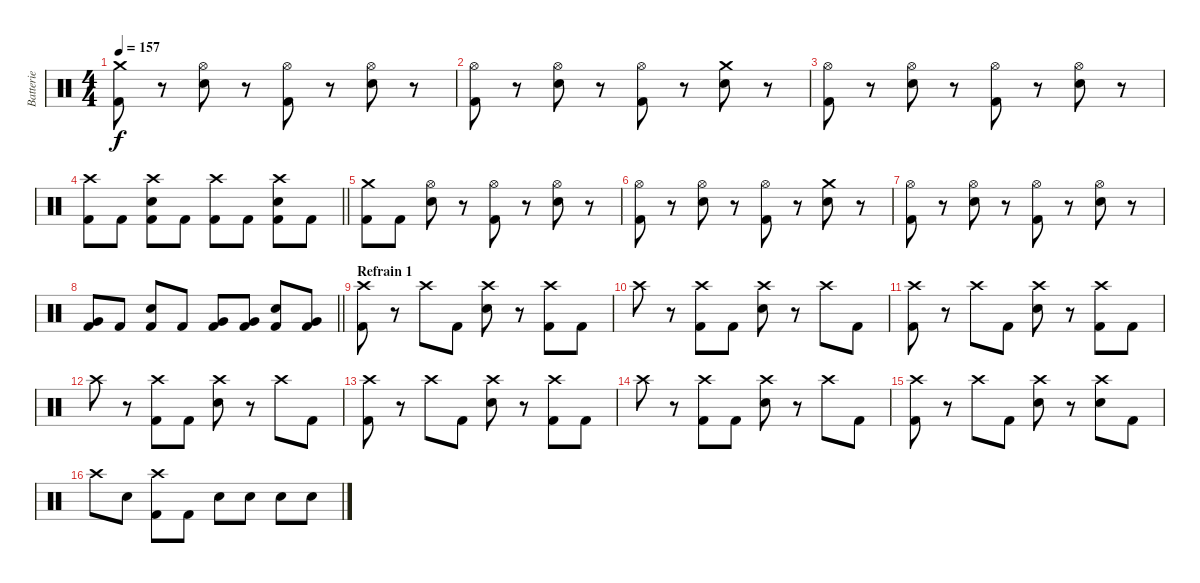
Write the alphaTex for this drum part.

\track ("Batterie" "Batterie") {instrument percussion}
\staff {score}
\articulation defaults
\ts (4 4)
\tempo 157
\clef neutral
\ks c
("Kick (hit) 2" "Crash medium (hit)").8{dy f} r.8 ("Electric Snare (hit)" "Hi-Hat (open)").8 r.8 ("Kick (hit) 2" "Hi-Hat (open)").8 r.8 ("Electric Snare (hit)" "Hi-Hat (open)").8 r.8 |
("Kick (hit) 2" "Hi-Hat (open)").8 r.8 ("Electric Snare (hit)" "Hi-Hat (open)").8 r.8 ("Kick (hit) 2" "Hi-Hat (open)").8 r.8 ("Electric Snare (hit)" "Crash medium (hit)").8 r.8 |
("Kick (hit) 2" "Hi-Hat (open)").8 r.8 ("Electric Snare (hit)" "Hi-Hat (open)").8 r.8 ("Kick (hit) 2" "Hi-Hat (open)").8 r.8 ("Electric Snare (hit)" "Hi-Hat (open)").8 r.8 |
\barLineRight lightlight
("Kick (hit) 2" "Crash high (hit)").8 "Kick (hit) 2".8 ("Kick (hit) 2" "Electric Snare (hit)" "Crash high (hit)").8 "Kick (hit) 2".8 ("Kick (hit) 2" "Crash high (hit)").8 "Kick (hit) 2".8 ("Kick (hit) 2" "Electric Snare (hit)" "Crash high (hit)").8 "Kick (hit) 2".8 |
("Kick (hit) 2" "Crash medium (hit)").8 "Kick (hit) 2".8 ("Electric Snare (hit)" "Hi-Hat (open)").8 r.8 ("Kick (hit) 2" "Hi-Hat (open)").8 r.8 ("Electric Snare (hit)" "Hi-Hat (open)").8 r.8 |
("Kick (hit) 2" "Hi-Hat (open)").8 r.8 ("Electric Snare (hit)" "Hi-Hat (open)").8 r.8 ("Kick (hit) 2" "Hi-Hat (open)").8 r.8 ("Electric Snare (hit)" "Crash medium (hit)").8 r.8 |
("Kick (hit) 2" "Hi-Hat (open)").8 r.8 ("Electric Snare (hit)" "Hi-Hat (open)").8 r.8 ("Kick (hit) 2" "Hi-Hat (open)").8 r.8 ("Electric Snare (hit)" "Hi-Hat (open)").8 r.8 |
\barLineRight lightlight
("Kick (hit) 2" "Very Low Tom (hit)").8 "Kick (hit) 2".8 ("Kick (hit) 2" "Electric Snare (hit)").8 "Kick (hit) 2".8 ("Kick (hit) 2" "Very Low Tom (hit)").8 ("Kick (hit) 2" "Very Low Tom (hit)").8 ("Kick (hit) 2" "Electric Snare (hit)").8 ("Kick (hit) 2" "Very Low Tom (hit)").8 |
\section ("" "Refrain 1")
("Kick (hit) 2" "Crash high (hit)").8 r.8 "Crash high (hit)".8 "Kick (hit) 2".8 ("Electric Snare (hit)" "Crash high (hit)").8 r.8 ("Kick (hit) 2" "Crash high (hit)").8 "Kick (hit) 2".8 |
"Crash high (hit)".8 r.8 ("Kick (hit) 2" "Crash high (hit)").8 "Kick (hit) 2".8 ("Electric Snare (hit)" "Crash high (hit)").8 r.8 "Crash high (hit)".8 "Kick (hit) 2".8 |
("Kick (hit) 2" "Crash high (hit)").8 r.8 "Crash high (hit)".8 "Kick (hit) 2".8 ("Electric Snare (hit)" "Crash high (hit)").8 r.8 ("Kick (hit) 2" "Crash high (hit)").8 "Kick (hit) 2".8 |
"Crash high (hit)".8 r.8 ("Kick (hit) 2" "Crash high (hit)").8 "Kick (hit) 2".8 ("Electric Snare (hit)" "Crash high (hit)").8 r.8 "Crash high (hit)".8 "Kick (hit) 2".8 |
("Kick (hit) 2" "Crash high (hit)").8 r.8 "Crash high (hit)".8 "Kick (hit) 2".8 ("Electric Snare (hit)" "Crash high (hit)").8 r.8 ("Kick (hit) 2" "Crash high (hit)").8 "Kick (hit) 2".8 |
"Crash high (hit)".8 r.8 ("Kick (hit) 2" "Crash high (hit)").8 "Kick (hit) 2".8 ("Electric Snare (hit)" "Crash high (hit)").8 r.8 "Crash high (hit)".8 "Kick (hit) 2".8 |
("Kick (hit) 2" "Crash high (hit)").8 r.8 "Crash high (hit)".8 "Kick (hit) 2".8 ("Electric Snare (hit)" "Crash high (hit)").8 r.8 ("Electric Snare (hit)" "Crash high (hit)").8 "Kick (hit) 2".8 |
"Crash high (hit)".8 "Electric Snare (hit)".8 ("Kick (hit) 2" "Crash high (hit)").8 "Kick (hit) 2".8 "Electric Snare (hit)".8 "Electric Snare (hit)".8 "Electric Snare (hit)".8 "Electric Snare (hit)".8
